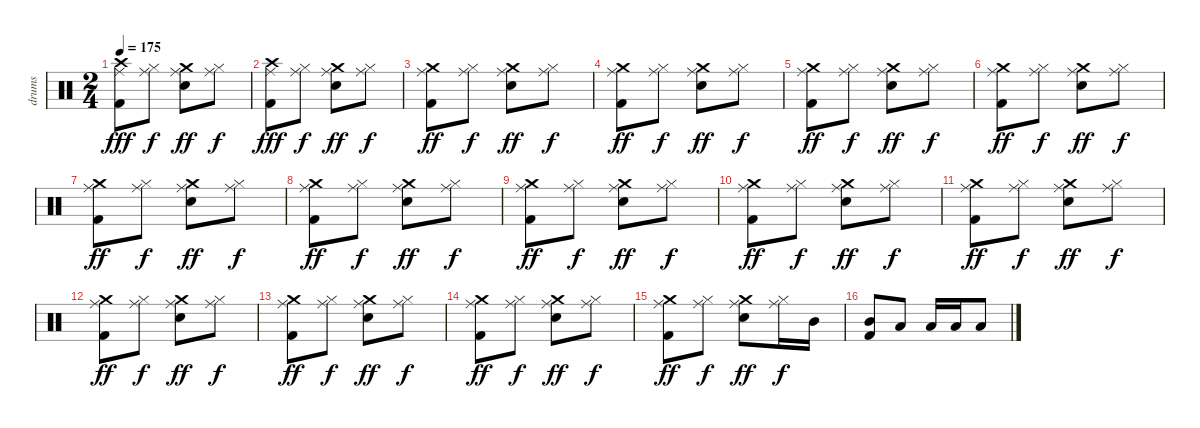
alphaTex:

\track ("drums" "drums") {instrument percussion}
\staff {score}
\articulation defaults
\ts (2 4)
\tempo 175
\clef neutral
\ks c
("Crash high (hit)" "Ride (middle)" "Kick (hit) 2").8{dy fff} ("Ride (middle)" "Hi-Hat (closed)").8{dy f} ("Crash medium (hit)" "Ride (middle)" "Snare (hit) 2").8{dy ff} ("Ride (middle)" "Hi-Hat (closed)").8{dy f} |
("Crash high (hit)" "Ride (middle)" "Kick (hit) 2").8{dy fff} ("Ride (middle)" "Hi-Hat (closed)").8{dy f} ("Crash medium (hit)" "Ride (middle)" "Snare (hit) 2").8{dy ff} ("Ride (middle)" "Hi-Hat (closed)").8{dy f} |
("Crash medium (hit)" "Ride (middle)" "Kick (hit) 2").8{dy ff} ("Ride (middle)" "Hi-Hat (closed)").8{dy f} ("Crash medium (hit)" "Ride (middle)" "Snare (hit) 2").8{dy ff} ("Ride (middle)" "Hi-Hat (closed)").8{dy f} |
("Crash medium (hit)" "Ride (middle)" "Kick (hit) 2").8{dy ff} ("Ride (middle)" "Hi-Hat (closed)").8{dy f} ("Crash medium (hit)" "Ride (middle)" "Snare (hit) 2").8{dy ff} ("Ride (middle)" "Hi-Hat (closed)").8{dy f} |
("Crash medium (hit)" "Ride (middle)" "Kick (hit) 2").8{dy ff} ("Ride (middle)" "Hi-Hat (closed)").8{dy f} ("Crash medium (hit)" "Ride (middle)" "Snare (hit) 2").8{dy ff} ("Ride (middle)" "Hi-Hat (closed)").8{dy f} |
("Crash medium (hit)" "Ride (middle)" "Kick (hit) 2").8{dy ff} ("Ride (middle)" "Hi-Hat (closed)").8{dy f} ("Crash medium (hit)" "Ride (middle)" "Snare (hit) 2").8{dy ff} ("Ride (middle)" "Hi-Hat (closed)").8{dy f} |
("Crash medium (hit)" "Ride (middle)" "Kick (hit) 2").8{dy ff} ("Ride (middle)" "Hi-Hat (closed)").8{dy f} ("Crash medium (hit)" "Ride (middle)" "Snare (hit) 2").8{dy ff} ("Ride (middle)" "Hi-Hat (closed)").8{dy f} |
("Crash medium (hit)" "Ride (middle)" "Kick (hit) 2").8{dy ff} ("Ride (middle)" "Hi-Hat (closed)").8{dy f} ("Crash medium (hit)" "Ride (middle)" "Snare (hit) 2").8{dy ff} ("Ride (middle)" "Hi-Hat (closed)").8{dy f} |
("Crash medium (hit)" "Ride (middle)" "Kick (hit) 2").8{dy ff} ("Ride (middle)" "Hi-Hat (closed)").8{dy f} ("Crash medium (hit)" "Ride (middle)" "Snare (hit) 2").8{dy ff} ("Ride (middle)" "Hi-Hat (closed)").8{dy f} |
("Crash medium (hit)" "Ride (middle)" "Kick (hit) 2").8{dy ff} ("Ride (middle)" "Hi-Hat (closed)").8{dy f} ("Crash medium (hit)" "Ride (middle)" "Snare (hit) 2").8{dy ff} ("Ride (middle)" "Hi-Hat (closed)").8{dy f} |
("Crash medium (hit)" "Ride (middle)" "Kick (hit) 2").8{dy ff} ("Ride (middle)" "Hi-Hat (closed)").8{dy f} ("Crash medium (hit)" "Ride (middle)" "Snare (hit) 2").8{dy ff} ("Ride (middle)" "Hi-Hat (closed)").8{dy f} |
("Crash medium (hit)" "Ride (middle)" "Kick (hit) 2").8{dy ff} ("Ride (middle)" "Hi-Hat (closed)").8{dy f} ("Crash medium (hit)" "Ride (middle)" "Snare (hit) 2").8{dy ff} ("Ride (middle)" "Hi-Hat (closed)").8{dy f} |
("Crash medium (hit)" "Ride (middle)" "Kick (hit) 2").8{dy ff} ("Ride (middle)" "Hi-Hat (closed)").8{dy f} ("Crash medium (hit)" "Ride (middle)" "Snare (hit) 2").8{dy ff} ("Ride (middle)" "Hi-Hat (closed)").8{dy f} |
("Crash medium (hit)" "Ride (middle)" "Kick (hit) 2").8{dy ff} ("Ride (middle)" "Hi-Hat (closed)").8{dy f} ("Crash medium (hit)" "Ride (middle)" "Snare (hit) 2").8{dy ff} ("Ride (middle)" "Hi-Hat (closed)").8{dy f} |
("Crash medium (hit)" "Ride (middle)" "Kick (hit) 2").8{dy ff} ("Ride (middle)" "Hi-Hat (closed)").8{dy f} ("Crash medium (hit)" "Ride (middle)" "Snare (hit) 2").8{dy ff} ("Ride (middle)" "Hi-Hat (closed)").16{dy f} "Mid Tom (hit)".16 |
("Mid Tom (hit)" "Kick (hit) 2").8 "Low Tom (hit)".8 "Low Floor Tom (hit)".16 "Low Floor Tom (hit)".16 "Low Floor Tom (hit)".8
